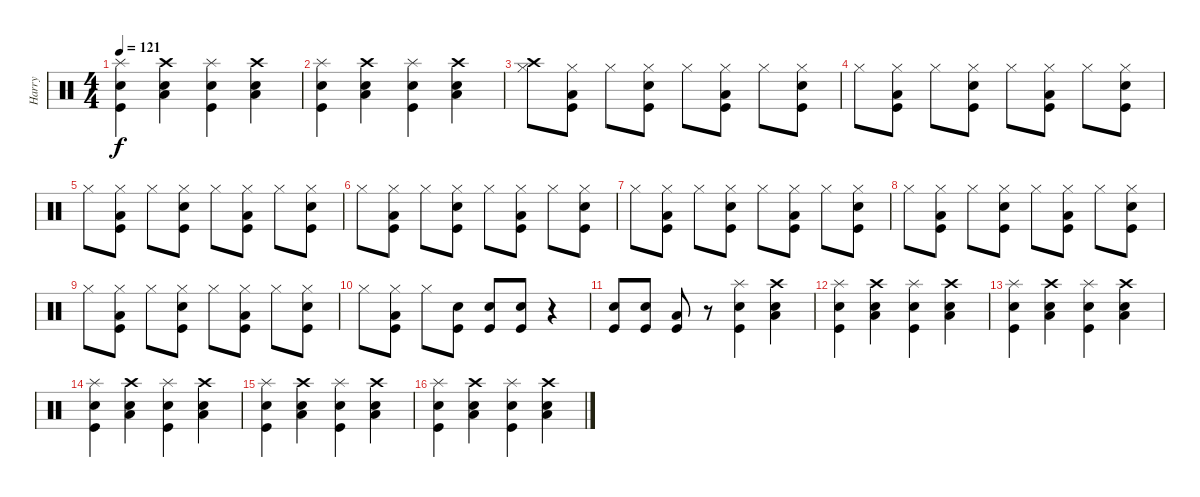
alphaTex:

\track ("Harry" "Harry") {instrument percussion}
\staff {score}
\articulation defaults
\ts (4 4)
\tempo 121
\clef neutral
\ks c
("Splash (hit)" "Snare (hit) 2" "Kick (hit)").4{dy f} ("Crash high (hit)" "Snare (hit) 2" "Low Tom (hit)").4 ("Splash (hit)" "Snare (hit) 2" "Kick (hit)").4 ("Crash high (hit)" "Snare (hit) 2" "Low Tom (hit)").4 |
("Splash (hit)" "Snare (hit) 2" "Kick (hit)").4 ("Crash high (hit)" "Snare (hit) 2" "Low Tom (hit)").4 ("Splash (hit)" "Snare (hit) 2" "Kick (hit)").4 ("Crash high (hit)" "Snare (hit) 2" "Low Tom (hit)").4 |
("Hi-Hat (closed)" "Crash high (hit)").8 ("Hi-Hat (closed)" "Low Floor Tom (hit)" "Kick (hit)").8 "Hi-Hat (closed)".8 ("Hi-Hat (closed)" "Snare (hit) 2" "Kick (hit)").8 "Hi-Hat (closed)".8 ("Hi-Hat (closed)" "Low Floor Tom (hit)" "Kick (hit)").8 "Hi-Hat (closed)".8 ("Hi-Hat (closed)" "Snare (hit) 2" "Kick (hit)").8 |
"Hi-Hat (closed)".8 ("Hi-Hat (closed)" "Low Floor Tom (hit)" "Kick (hit)").8 "Hi-Hat (closed)".8 ("Hi-Hat (closed)" "Snare (hit) 2" "Kick (hit)").8 "Hi-Hat (closed)".8 ("Hi-Hat (closed)" "Low Floor Tom (hit)" "Kick (hit)").8 "Hi-Hat (closed)".8 ("Hi-Hat (closed)" "Snare (hit) 2" "Kick (hit)").8 |
"Hi-Hat (closed)".8 ("Hi-Hat (closed)" "Low Floor Tom (hit)" "Kick (hit)").8 "Hi-Hat (closed)".8 ("Hi-Hat (closed)" "Snare (hit) 2" "Kick (hit)").8 "Hi-Hat (closed)".8 ("Hi-Hat (closed)" "Low Floor Tom (hit)" "Kick (hit)").8 "Hi-Hat (closed)".8 ("Hi-Hat (closed)" "Snare (hit) 2" "Kick (hit)").8 |
"Hi-Hat (closed)".8 ("Hi-Hat (closed)" "Low Floor Tom (hit)" "Kick (hit)").8 "Hi-Hat (closed)".8 ("Hi-Hat (closed)" "Snare (hit) 2" "Kick (hit)").8 "Hi-Hat (closed)".8 ("Hi-Hat (closed)" "Low Floor Tom (hit)" "Kick (hit)").8 "Hi-Hat (closed)".8 ("Hi-Hat (closed)" "Snare (hit) 2" "Kick (hit)").8 |
"Hi-Hat (closed)".8 ("Hi-Hat (closed)" "Low Floor Tom (hit)" "Kick (hit)").8 "Hi-Hat (closed)".8 ("Hi-Hat (closed)" "Snare (hit) 2" "Kick (hit)").8 "Hi-Hat (closed)".8 ("Hi-Hat (closed)" "Low Floor Tom (hit)" "Kick (hit)").8 "Hi-Hat (closed)".8 ("Hi-Hat (closed)" "Snare (hit) 2" "Kick (hit)").8 |
"Hi-Hat (closed)".8 ("Hi-Hat (closed)" "Low Floor Tom (hit)" "Kick (hit)").8 "Hi-Hat (closed)".8 ("Hi-Hat (closed)" "Snare (hit) 2" "Kick (hit)").8 "Hi-Hat (closed)".8 ("Hi-Hat (closed)" "Low Floor Tom (hit)" "Kick (hit)").8 "Hi-Hat (closed)".8 ("Hi-Hat (closed)" "Snare (hit) 2" "Kick (hit)").8 |
"Hi-Hat (closed)".8 ("Hi-Hat (closed)" "Low Floor Tom (hit)" "Kick (hit)").8 "Hi-Hat (closed)".8 ("Hi-Hat (closed)" "Snare (hit) 2" "Kick (hit)").8 "Hi-Hat (closed)".8 ("Hi-Hat (closed)" "Low Floor Tom (hit)" "Kick (hit)").8 "Hi-Hat (closed)".8 ("Hi-Hat (closed)" "Snare (hit) 2" "Kick (hit)").8 |
"Hi-Hat (closed)".8 ("Hi-Hat (closed)" "Low Floor Tom (hit)" "Kick (hit)").8 "Hi-Hat (closed)".8 ("Kick (hit)" "Snare (hit) 2").8 ("Kick (hit)" "Snare (hit) 2").8 ("Kick (hit)" "Snare (hit) 2").8 r.4 |
("Kick (hit)" "Snare (hit) 2").8 ("Kick (hit)" "Snare (hit) 2").8 ("Low Floor Tom (hit)" "Kick (hit)").8 r.8 ("Splash (hit)" "Snare (hit) 2" "Kick (hit)").4 ("Crash high (hit)" "Snare (hit) 2" "Low Tom (hit)").4 |
("Splash (hit)" "Snare (hit) 2" "Kick (hit)").4 ("Crash high (hit)" "Snare (hit) 2" "Low Tom (hit)").4 ("Splash (hit)" "Snare (hit) 2" "Kick (hit)").4 ("Crash high (hit)" "Snare (hit) 2" "Low Tom (hit)").4 |
("Splash (hit)" "Snare (hit) 2" "Kick (hit)").4 ("Crash high (hit)" "Snare (hit) 2" "Low Tom (hit)").4 ("Splash (hit)" "Snare (hit) 2" "Kick (hit)").4 ("Crash high (hit)" "Snare (hit) 2" "Low Tom (hit)").4 |
("Splash (hit)" "Snare (hit) 2" "Kick (hit)").4 ("Crash high (hit)" "Snare (hit) 2" "Low Tom (hit)").4 ("Splash (hit)" "Snare (hit) 2" "Kick (hit)").4 ("Crash high (hit)" "Snare (hit) 2" "Low Tom (hit)").4 |
("Splash (hit)" "Snare (hit) 2" "Kick (hit)").4 ("Crash high (hit)" "Snare (hit) 2" "Low Tom (hit)").4 ("Splash (hit)" "Snare (hit) 2" "Kick (hit)").4 ("Crash high (hit)" "Snare (hit) 2" "Low Tom (hit)").4 |
("Splash (hit)" "Snare (hit) 2" "Kick (hit)").4 ("Crash high (hit)" "Snare (hit) 2" "Low Tom (hit)").4 ("Splash (hit)" "Snare (hit) 2" "Kick (hit)").4 ("Crash high (hit)" "Snare (hit) 2" "Low Tom (hit)").4
